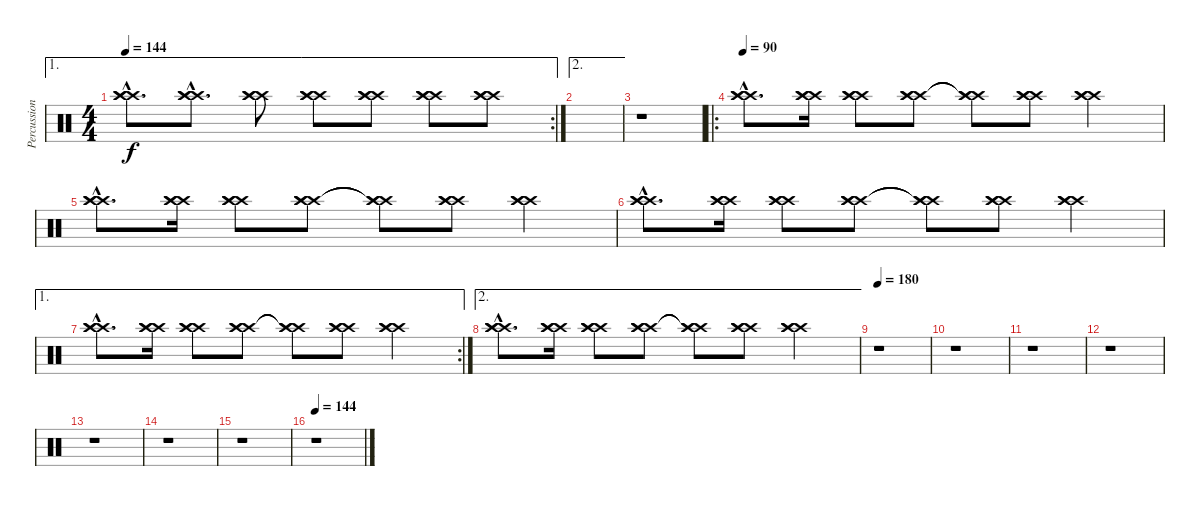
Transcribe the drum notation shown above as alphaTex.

\track ("Percussion 2" "Percussion") {instrument percussion}
\staff {score}
\articulation defaults
\ae 1
\rc 2
\ts (4 4)
\tempo 144
\clef neutral
\ks c
("Crash high (hit)"{hac} "Crash high (hit)"{hac} "Crash high (hit)"{hac}).8{d dy f} ("Crash high (hit)"{hac} "Crash high (hit)" "Crash high (hit)").8{d} ("Crash high (hit)" "Crash high (hit)" "Crash high (hit)").8 ("Crash high (hit)" "Crash high (hit)" "Crash high (hit)").8 ("Crash high (hit)" "Crash high (hit)" "Crash high (hit)").8 ("Crash high (hit)" "Crash high (hit)" "Crash high (hit)").8 ("Crash high (hit)" "Crash high (hit)" "Crash high (hit)").8 |
\ae 2
|
r.1 |
\ro
\tempo 90
("Crash high (hit)"{hac} "Crash high (hit)"{hac} "Crash high (hit)"{hac}).8{d} ("Crash high (hit)" "Crash high (hit)" "Crash high (hit)").16 ("Crash high (hit)" "Crash high (hit)" "Crash high (hit)").8 ("Crash high (hit)" "Crash high (hit)" "Crash high (hit)").8 ("Crash high (hit)"{t} "Crash high (hit)"{t} "Crash high (hit)"{t}).8 ("Crash high (hit)" "Crash high (hit)" "Crash high (hit)").8 ("Crash high (hit)" "Crash high (hit)" "Crash high (hit)").4 |
("Crash high (hit)"{hac} "Crash high (hit)"{hac} "Crash high (hit)"{hac}).8{d} ("Crash high (hit)" "Crash high (hit)" "Crash high (hit)").16 ("Crash high (hit)" "Crash high (hit)" "Crash high (hit)").8 ("Crash high (hit)" "Crash high (hit)" "Crash high (hit)").8 ("Crash high (hit)"{t} "Crash high (hit)"{t} "Crash high (hit)"{t}).8 ("Crash high (hit)" "Crash high (hit)" "Crash high (hit)").8 ("Crash high (hit)" "Crash high (hit)" "Crash high (hit)").4 |
("Crash high (hit)"{hac} "Crash high (hit)"{hac} "Crash high (hit)"{hac}).8{d} ("Crash high (hit)" "Crash high (hit)" "Crash high (hit)").16 ("Crash high (hit)" "Crash high (hit)" "Crash high (hit)").8 ("Crash high (hit)" "Crash high (hit)" "Crash high (hit)").8 ("Crash high (hit)"{t} "Crash high (hit)"{t} "Crash high (hit)"{t}).8 ("Crash high (hit)" "Crash high (hit)" "Crash high (hit)").8 ("Crash high (hit)" "Crash high (hit)" "Crash high (hit)").4 |
\ae 1
\rc 2
("Crash high (hit)"{hac} "Crash high (hit)"{hac} "Crash high (hit)"{hac}).8{d} ("Crash high (hit)" "Crash high (hit)" "Crash high (hit)").16 ("Crash high (hit)" "Crash high (hit)" "Crash high (hit)").8 ("Crash high (hit)" "Crash high (hit)" "Crash high (hit)").8 ("Crash high (hit)"{t} "Crash high (hit)"{t} "Crash high (hit)"{t}).8 ("Crash high (hit)" "Crash high (hit)" "Crash high (hit)").8 ("Crash high (hit)" "Crash high (hit)" "Crash high (hit)").4 |
\ae 2
("Crash high (hit)"{hac} "Crash high (hit)"{hac} "Crash high (hit)"{hac}).8{d} ("Crash high (hit)" "Crash high (hit)" "Crash high (hit)").16 ("Crash high (hit)" "Crash high (hit)" "Crash high (hit)").8 ("Crash high (hit)" "Crash high (hit)" "Crash high (hit)").8 ("Crash high (hit)"{t} "Crash high (hit)"{t} "Crash high (hit)"{t}).8 ("Crash high (hit)" "Crash high (hit)" "Crash high (hit)").8 ("Crash high (hit)" "Crash high (hit)" "Crash high (hit)").4 |
\tempo 180
r.1 |
r.1 |
r.1 |
r.1 |
r.1 |
r.1 |
r.1 |
\tempo 144
r.1
